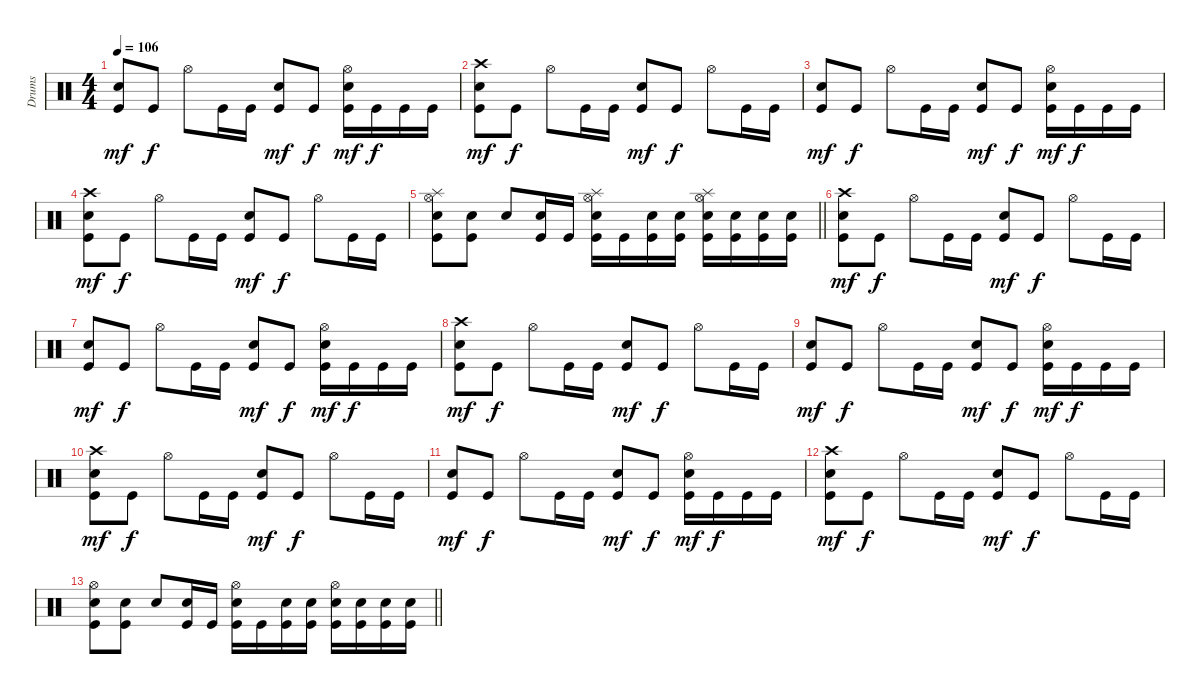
\track ("Drums" "Drums") {instrument percussion}
\staff {score}
\articulation defaults
\ts (4 4)
\tempo 106
\clef neutral
\ks c
("Electric Snare (hit)" "Kick (hit)").8{dy mf} "Kick (hit)".8{dy f} "Hi-Hat (open)".8 "Kick (hit)".16 "Kick (hit)".16 ("Electric Snare (hit)" "Kick (hit)").8{dy mf} "Kick (hit)".8{dy f} ("Hi-Hat (open)" "Electric Snare (hit)" "Kick (hit)").16{dy mf} "Kick (hit)".16{dy f} "Kick (hit)".16 "Kick (hit)".16 |
("Crash high (hit)" "Electric Snare (hit)" "Kick (hit)").8{dy mf} "Kick (hit)".8{dy f} "Hi-Hat (open)".8 "Kick (hit)".16 "Kick (hit)".16 ("Electric Snare (hit)" "Kick (hit)").8{dy mf} "Kick (hit)".8{dy f} "Hi-Hat (open)".8 "Kick (hit)".16 "Kick (hit)".16 |
("Electric Snare (hit)" "Kick (hit)").8{dy mf} "Kick (hit)".8{dy f} "Hi-Hat (open)".8 "Kick (hit)".16 "Kick (hit)".16 ("Electric Snare (hit)" "Kick (hit)").8{dy mf} "Kick (hit)".8{dy f} ("Hi-Hat (open)" "Electric Snare (hit)" "Kick (hit)").16{dy mf} "Kick (hit)".16{dy f} "Kick (hit)".16 "Kick (hit)".16 |
("Crash high (hit)" "Electric Snare (hit)" "Kick (hit)").8{dy mf} "Kick (hit)".8{dy f} "Hi-Hat (open)".8 "Kick (hit)".16 "Kick (hit)".16 ("Electric Snare (hit)" "Kick (hit)").8{dy mf} "Kick (hit)".8{dy f} "Hi-Hat (open)".8 "Kick (hit)".16 "Kick (hit)".16 |
\barLineRight lightlight
("Splash (hit)" "Hi-Hat (open)" "Electric Snare (hit)" "Kick (hit)").8 ("Electric Snare (hit)" "Kick (hit)").8 "Electric Snare (hit)".8 ("Electric Snare (hit)" "Kick (hit)").16 "Kick (hit)".16 ("Splash (hit)" "Hi-Hat (open)" "Electric Snare (hit)" "Kick (hit)").16 "Kick (hit)".16 ("Electric Snare (hit)" "Kick (hit)").16 ("Electric Snare (hit)" "Kick (hit)").16 ("Splash (hit)" "Hi-Hat (open)" "Electric Snare (hit)" "Kick (hit)").16 ("Electric Snare (hit)" "Kick (hit)").16 ("Electric Snare (hit)" "Kick (hit)").16 ("Electric Snare (hit)" "Kick (hit)").16 |
("Crash high (hit)" "Electric Snare (hit)" "Kick (hit)").8{dy mf} "Kick (hit)".8{dy f} "Hi-Hat (open)".8 "Kick (hit)".16 "Kick (hit)".16 ("Electric Snare (hit)" "Kick (hit)").8{dy mf} "Kick (hit)".8{dy f} "Hi-Hat (open)".8 "Kick (hit)".16 "Kick (hit)".16 |
("Electric Snare (hit)" "Kick (hit)").8{dy mf} "Kick (hit)".8{dy f} "Hi-Hat (open)".8 "Kick (hit)".16 "Kick (hit)".16 ("Electric Snare (hit)" "Kick (hit)").8{dy mf} "Kick (hit)".8{dy f} ("Hi-Hat (open)" "Electric Snare (hit)" "Kick (hit)").16{dy mf} "Kick (hit)".16{dy f} "Kick (hit)".16 "Kick (hit)".16 |
("Crash high (hit)" "Electric Snare (hit)" "Kick (hit)").8{dy mf} "Kick (hit)".8{dy f} "Hi-Hat (open)".8 "Kick (hit)".16 "Kick (hit)".16 ("Electric Snare (hit)" "Kick (hit)").8{dy mf} "Kick (hit)".8{dy f} "Hi-Hat (open)".8 "Kick (hit)".16 "Kick (hit)".16 |
("Electric Snare (hit)" "Kick (hit)").8{dy mf} "Kick (hit)".8{dy f} "Hi-Hat (open)".8 "Kick (hit)".16 "Kick (hit)".16 ("Electric Snare (hit)" "Kick (hit)").8{dy mf} "Kick (hit)".8{dy f} ("Hi-Hat (open)" "Electric Snare (hit)" "Kick (hit)").16{dy mf} "Kick (hit)".16{dy f} "Kick (hit)".16 "Kick (hit)".16 |
("Crash high (hit)" "Electric Snare (hit)" "Kick (hit)").8{dy mf} "Kick (hit)".8{dy f} "Hi-Hat (open)".8 "Kick (hit)".16 "Kick (hit)".16 ("Electric Snare (hit)" "Kick (hit)").8{dy mf} "Kick (hit)".8{dy f} "Hi-Hat (open)".8 "Kick (hit)".16 "Kick (hit)".16 |
("Electric Snare (hit)" "Kick (hit)").8{dy mf} "Kick (hit)".8{dy f} "Hi-Hat (open)".8 "Kick (hit)".16 "Kick (hit)".16 ("Electric Snare (hit)" "Kick (hit)").8{dy mf} "Kick (hit)".8{dy f} ("Hi-Hat (open)" "Electric Snare (hit)" "Kick (hit)").16{dy mf} "Kick (hit)".16{dy f} "Kick (hit)".16 "Kick (hit)".16 |
("Crash high (hit)" "Electric Snare (hit)" "Kick (hit)").8{dy mf} "Kick (hit)".8{dy f} "Hi-Hat (open)".8 "Kick (hit)".16 "Kick (hit)".16 ("Electric Snare (hit)" "Kick (hit)").8{dy mf} "Kick (hit)".8{dy f} "Hi-Hat (open)".8 "Kick (hit)".16 "Kick (hit)".16 |
\barLineRight lightlight
("Hi-Hat (open)" "Electric Snare (hit)" "Kick (hit)").8 ("Electric Snare (hit)" "Kick (hit)").8 "Electric Snare (hit)".8 ("Electric Snare (hit)" "Kick (hit)").16 "Kick (hit)".16 ("Hi-Hat (open)" "Electric Snare (hit)" "Kick (hit)").16 "Kick (hit)".16 ("Electric Snare (hit)" "Kick (hit)").16 ("Electric Snare (hit)" "Kick (hit)").16 ("Hi-Hat (open)" "Electric Snare (hit)" "Kick (hit)").16 ("Electric Snare (hit)" "Kick (hit)").16 ("Electric Snare (hit)" "Kick (hit)").16 ("Electric Snare (hit)" "Kick (hit)").16
